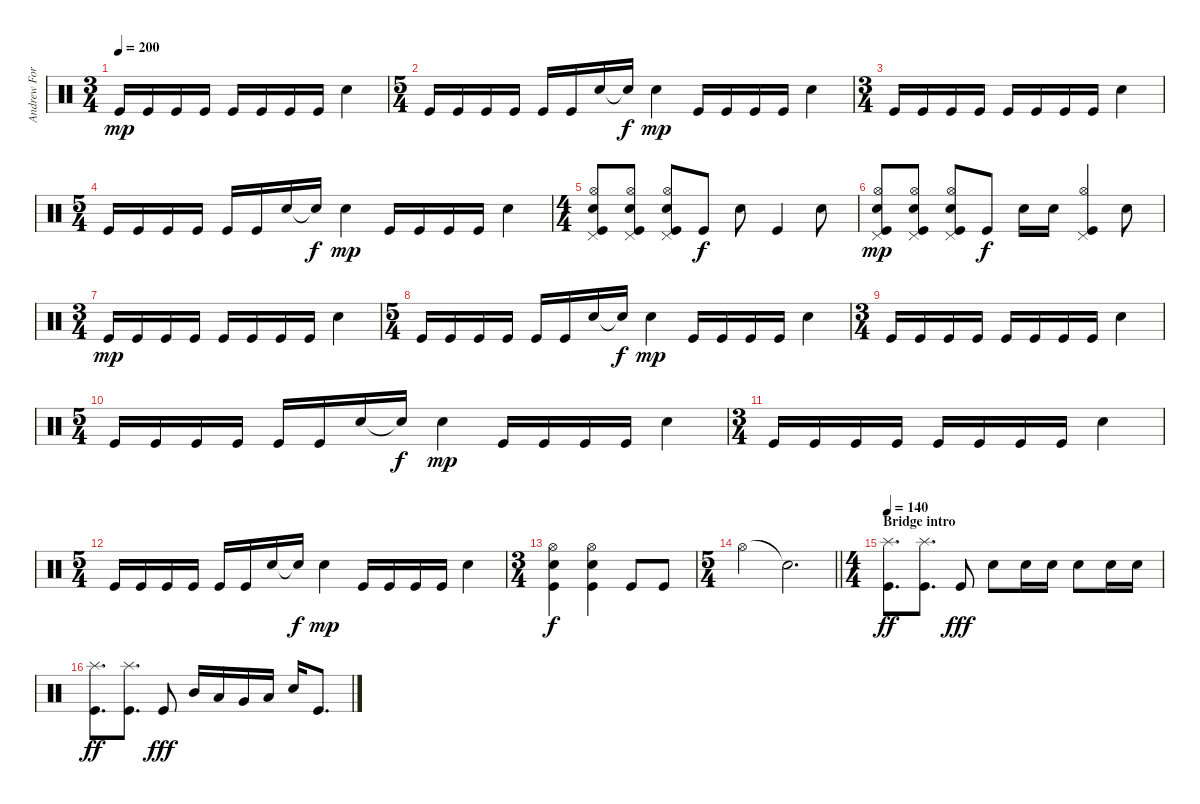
\track ("Andrew Forsman" "Andrew For") {instrument percussion}
\staff {score}
\articulation defaults
\ts (3 4)
\tempo 200
\clef neutral
\ks c "Kick (hit)".16{dy mp} "Kick (hit)".16 "Kick (hit)".16 "Kick (hit)".16 "Kick (hit)".16 "Kick (hit)".16 "Kick (hit)".16 "Kick (hit)".16 "Electric Snare (hit)".4
|
\ts (5 4)
"Kick (hit)".16 "Kick (hit)".16 "Kick (hit)".16 "Kick (hit)".16 "Kick (hit)".16 "Kick (hit)".16 "Electric Snare (hit)".16 "Snare (hit)"{t}.16{dy f} "Electric Snare (hit)".4{dy mp} "Kick (hit)".16 "Kick (hit)".16 "Kick (hit)".16 "Kick (hit)".16 "Electric Snare (hit)".4 |
\ts (3 4)
"Kick (hit)".16 "Kick (hit)".16 "Kick (hit)".16 "Kick (hit)".16 "Kick (hit)".16 "Kick (hit)".16 "Kick (hit)".16 "Kick (hit)".16 "Electric Snare (hit)".4 |
\ts (5 4)
"Kick (hit)".16 "Kick (hit)".16 "Kick (hit)".16 "Kick (hit)".16 "Kick (hit)".16 "Kick (hit)".16 "Electric Snare (hit)".16 "Snare (hit)"{t}.16{dy f} "Electric Snare (hit)".4{dy mp} "Kick (hit)".16 "Kick (hit)".16 "Kick (hit)".16 "Kick (hit)".16 "Electric Snare (hit)".4 |
\ts (4 4)
("Hi-Hat (open)" "Pedal Hi-Hat (hit)" "Electric Snare (hit)" "Kick (hit)").8 ("Hi-Hat (open)" "Pedal Hi-Hat (hit)" "Electric Snare (hit)" "Kick (hit)").8 ("Hi-Hat (open)" "Pedal Hi-Hat (hit)" "Electric Snare (hit)" "Kick (hit)").8 "Kick (hit)".8{dy f} "Electric Snare (hit)".8 "Kick (hit)".4 "Electric Snare (hit)".8 |
("Hi-Hat (open)" "Pedal Hi-Hat (hit)" "Electric Snare (hit)" "Kick (hit)").8{dy mp} ("Hi-Hat (open)" "Pedal Hi-Hat (hit)" "Electric Snare (hit)" "Kick (hit)").8 ("Hi-Hat (open)" "Pedal Hi-Hat (hit)" "Electric Snare (hit)" "Kick (hit)").8 "Kick (hit)".8{dy f} "Electric Snare (hit)".16 "Electric Snare (hit)".16 ("Hi-Hat (open)" "Pedal Hi-Hat (hit)" "Kick (hit)").4 "Electric Snare (hit)".8 |
\ts (3 4)
"Kick (hit)".16{dy mp} "Kick (hit)".16 "Kick (hit)".16 "Kick (hit)".16 "Kick (hit)".16 "Kick (hit)".16 "Kick (hit)".16 "Kick (hit)".16 "Electric Snare (hit)".4 |
\ts (5 4)
"Kick (hit)".16 "Kick (hit)".16 "Kick (hit)".16 "Kick (hit)".16 "Kick (hit)".16 "Kick (hit)".16 "Electric Snare (hit)".16 "Snare (hit)"{t}.16{dy f} "Electric Snare (hit)".4{dy mp} "Kick (hit)".16 "Kick (hit)".16 "Kick (hit)".16 "Kick (hit)".16 "Electric Snare (hit)".4 |
\ts (3 4)
"Kick (hit)".16 "Kick (hit)".16 "Kick (hit)".16 "Kick (hit)".16 "Kick (hit)".16 "Kick (hit)".16 "Kick (hit)".16 "Kick (hit)".16 "Electric Snare (hit)".4 |
\ts (5 4)
"Kick (hit)".16 "Kick (hit)".16 "Kick (hit)".16 "Kick (hit)".16 "Kick (hit)".16 "Kick (hit)".16 "Electric Snare (hit)".16 "Snare (hit)"{t}.16{dy f} "Electric Snare (hit)".4{dy mp} "Kick (hit)".16 "Kick (hit)".16 "Kick (hit)".16 "Kick (hit)".16 "Electric Snare (hit)".4 |
\ts (3 4)
"Kick (hit)".16 "Kick (hit)".16 "Kick (hit)".16 "Kick (hit)".16 "Kick (hit)".16 "Kick (hit)".16 "Kick (hit)".16 "Kick (hit)".16 "Electric Snare (hit)".4 |
\ts (5 4)
"Kick (hit)".16 "Kick (hit)".16 "Kick (hit)".16 "Kick (hit)".16 "Kick (hit)".16 "Kick (hit)".16 "Electric Snare (hit)".16 "Snare (hit)"{t}.16{dy f} "Electric Snare (hit)".4{dy mp} "Kick (hit)".16 "Kick (hit)".16 "Kick (hit)".16 "Kick (hit)".16 "Electric Snare (hit)".4 |
\ts (3 4)
("Hi-Hat (open)" "Electric Snare (hit)" "Kick (hit)").4{dy f} ("Hi-Hat (open)" "Electric Snare (hit)" "Kick (hit)").4 "Kick (hit)".8 "Kick (hit)".8 |
\ts (5 4)
\barLineRight lightlight "Hi-Hat (open)".2 "Snare (hit)"{t}.2{d}
|
\ts (4 4)
\section ("" "Bridge intro")
\tempo 140
("Splash (hit)" "Kick (hit)").8{d dy ff} ("Splash (hit)" "Kick (hit)").8{d} "Kick (hit)".8{dy fff} "Electric Snare (hit)".8 "Electric Snare (hit)".16 "Electric Snare (hit)".16 "Electric Snare (hit)".8 "Electric Snare (hit)".16 "Electric Snare (hit)".16 |
("Splash (hit)" "Kick (hit)").8{d dy ff} ("Splash (hit)" "Kick (hit)").8{d} "Kick (hit)".8{dy fff} "Mid Tom (hit)".16 "Low Tom (hit)".16 "Very Low Tom (hit)".16 "Low Floor Tom (hit)".16 "Electric Snare (hit)".16 "Kick (hit)".8{d}
